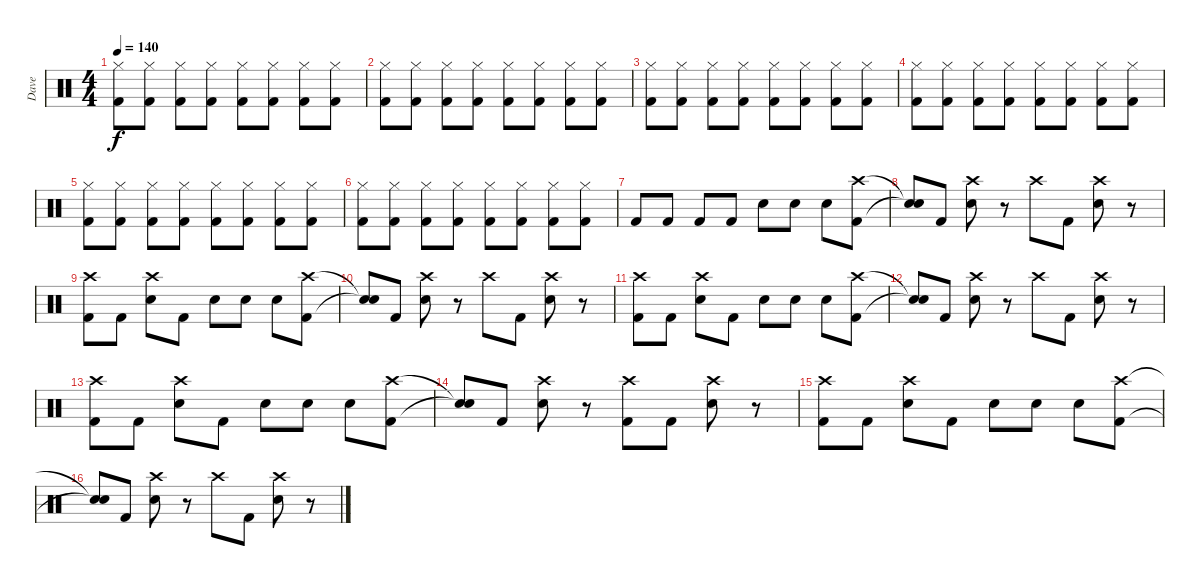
\track ("Dave" "Dave") {instrument percussion}
\staff {score}
\articulation defaults
\ts (4 4)
\tempo 140
\clef neutral
\ks c
("Hi-Hat (closed)" "Kick (hit) 2").8{dy f} ("Hi-Hat (closed)" "Kick (hit) 2").8 ("Hi-Hat (closed)" "Kick (hit) 2").8 ("Hi-Hat (closed)" "Kick (hit) 2").8 ("Hi-Hat (closed)" "Kick (hit) 2").8 ("Hi-Hat (closed)" "Kick (hit) 2").8 ("Hi-Hat (closed)" "Kick (hit) 2").8 ("Hi-Hat (closed)" "Kick (hit) 2").8 |
("Hi-Hat (closed)" "Kick (hit) 2").8 ("Hi-Hat (closed)" "Kick (hit) 2").8 ("Hi-Hat (closed)" "Kick (hit) 2").8 ("Hi-Hat (closed)" "Kick (hit) 2").8 ("Hi-Hat (closed)" "Kick (hit) 2").8 ("Hi-Hat (closed)" "Kick (hit) 2").8 ("Hi-Hat (closed)" "Kick (hit) 2").8 ("Hi-Hat (closed)" "Kick (hit) 2").8 |
("Hi-Hat (closed)" "Kick (hit) 2").8 ("Hi-Hat (closed)" "Kick (hit) 2").8 ("Hi-Hat (closed)" "Kick (hit) 2").8 ("Hi-Hat (closed)" "Kick (hit) 2").8 ("Hi-Hat (closed)" "Kick (hit) 2").8 ("Hi-Hat (closed)" "Kick (hit) 2").8 ("Hi-Hat (closed)" "Kick (hit) 2").8 ("Hi-Hat (closed)" "Kick (hit) 2").8 |
("Hi-Hat (closed)" "Kick (hit) 2").8 ("Hi-Hat (closed)" "Kick (hit) 2").8 ("Hi-Hat (closed)" "Kick (hit) 2").8 ("Hi-Hat (closed)" "Kick (hit) 2").8 ("Hi-Hat (closed)" "Kick (hit) 2").8 ("Hi-Hat (closed)" "Kick (hit) 2").8 ("Hi-Hat (closed)" "Kick (hit) 2").8 ("Hi-Hat (closed)" "Kick (hit) 2").8 |
("Hi-Hat (closed)" "Kick (hit) 2").8 ("Hi-Hat (closed)" "Kick (hit) 2").8 ("Hi-Hat (closed)" "Kick (hit) 2").8 ("Hi-Hat (closed)" "Kick (hit) 2").8 ("Hi-Hat (closed)" "Kick (hit) 2").8 ("Hi-Hat (closed)" "Kick (hit) 2").8 ("Hi-Hat (closed)" "Kick (hit) 2").8 ("Hi-Hat (closed)" "Kick (hit) 2").8 |
("Hi-Hat (closed)" "Kick (hit) 2").8 ("Hi-Hat (closed)" "Kick (hit) 2").8 ("Hi-Hat (closed)" "Kick (hit) 2").8 ("Hi-Hat (closed)" "Kick (hit) 2").8 ("Hi-Hat (closed)" "Kick (hit) 2").8 ("Hi-Hat (closed)" "Kick (hit) 2").8 ("Hi-Hat (closed)" "Kick (hit) 2").8 ("Hi-Hat (closed)" "Kick (hit) 2").8 |
"Kick (hit) 2".8 "Kick (hit) 2".8 "Kick (hit) 2".8 "Kick (hit) 2".8 "Snare (hit) 2".8 "Snare (hit) 2".8 "Snare (hit) 2".8 ("Crash high (hit)" "Kick (hit) 2").8 |
("Snare (hit)"{t} "Snare (hit)"{t}).8 "Kick (hit) 2".8 ("Crash high (hit)" "Snare (hit) 2").8 r.8 "Crash high (hit)".8 "Kick (hit) 2".8 ("Crash high (hit)" "Snare (hit) 2").8 r.8 |
("Crash high (hit)" "Kick (hit) 2").8 "Kick (hit) 2".8 ("Crash high (hit)" "Snare (hit) 2").8 "Kick (hit) 2".8 "Snare (hit) 2".8 "Snare (hit) 2".8 "Snare (hit) 2".8 ("Crash high (hit)" "Kick (hit) 2").8 |
("Snare (hit)"{t} "Snare (hit)"{t}).8 "Kick (hit) 2".8 ("Crash high (hit)" "Snare (hit) 2").8 r.8 "Crash high (hit)".8 "Kick (hit) 2".8 ("Crash high (hit)" "Snare (hit) 2").8 r.8 |
("Crash high (hit)" "Kick (hit) 2").8 "Kick (hit) 2".8 ("Crash high (hit)" "Snare (hit) 2").8 "Kick (hit) 2".8 "Snare (hit) 2".8 "Snare (hit) 2".8 "Snare (hit) 2".8 ("Crash high (hit)" "Kick (hit) 2").8 |
("Snare (hit)"{t} "Snare (hit)"{t}).8 "Kick (hit) 2".8 ("Crash high (hit)" "Snare (hit) 2").8 r.8 "Crash high (hit)".8 "Kick (hit) 2".8 ("Crash high (hit)" "Snare (hit) 2").8 r.8 |
("Crash high (hit)" "Kick (hit) 2").8 "Kick (hit) 2".8 ("Crash high (hit)" "Snare (hit) 2").8 "Kick (hit) 2".8 "Snare (hit) 2".8 "Snare (hit) 2".8 "Snare (hit) 2".8 ("Crash high (hit)" "Kick (hit) 2").8 |
("Snare (hit)"{t} "Snare (hit)"{t}).8 "Kick (hit) 2".8 ("Crash high (hit)" "Snare (hit) 2").8 r.8 ("Crash high (hit)" "Kick (hit) 2").8 "Kick (hit) 2".8 ("Crash high (hit)" "Snare (hit) 2").8 r.8 |
("Crash high (hit)" "Kick (hit) 2").8 "Kick (hit) 2".8 ("Crash high (hit)" "Snare (hit) 2").8 "Kick (hit) 2".8 "Snare (hit) 2".8 "Snare (hit) 2".8 "Snare (hit) 2".8 ("Crash high (hit)" "Kick (hit) 2").8 |
("Snare (hit)"{t} "Snare (hit)"{t}).8 "Kick (hit) 2".8 ("Crash high (hit)" "Snare (hit) 2").8 r.8 "Crash high (hit)".8 "Kick (hit) 2".8 ("Crash high (hit)" "Snare (hit) 2").8 r.8
